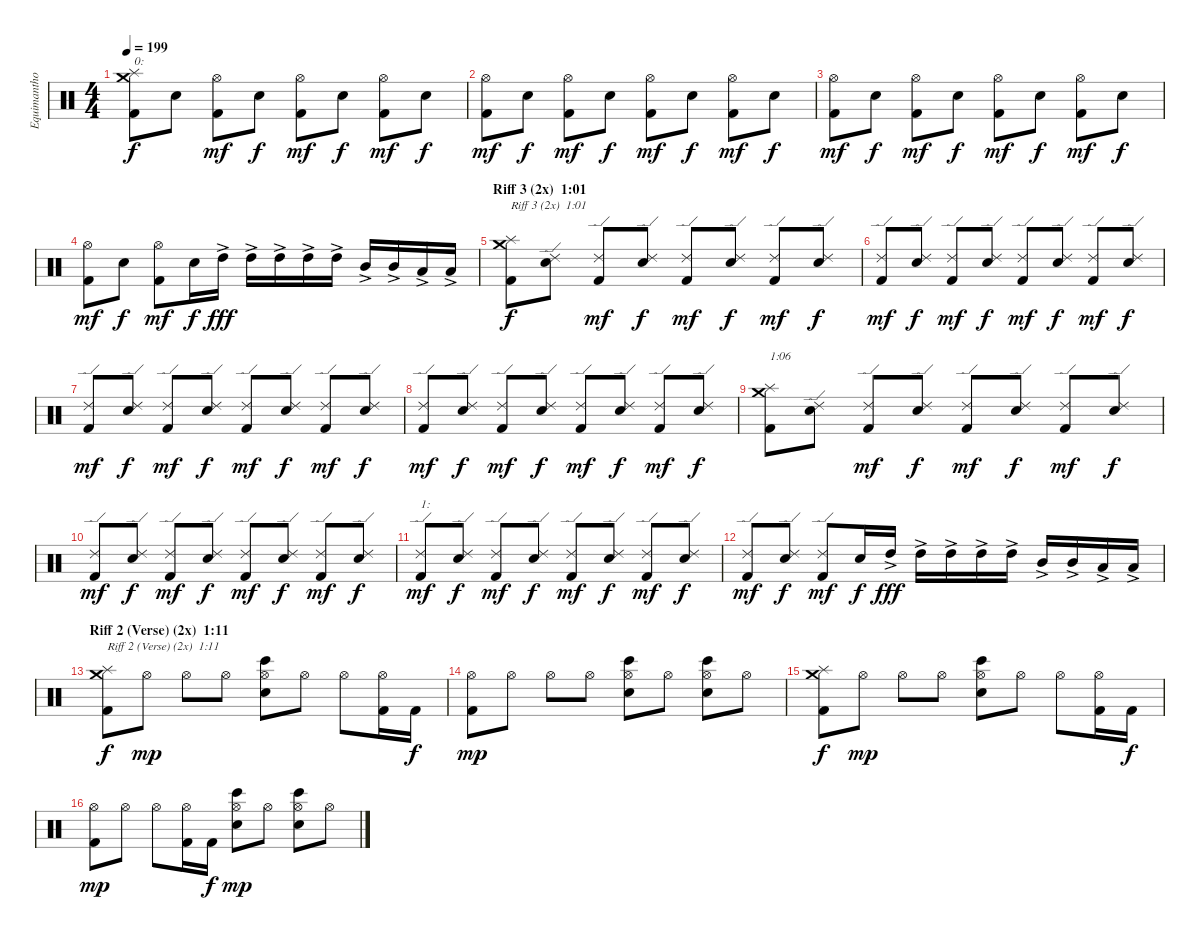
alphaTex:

\track ("Equimanthorn" "Equimantho") {instrument percussion}
\staff {score}
\articulation defaults
\ts (4 4)
\tempo 199
\clef neutral
\ks c
("Kick (hit) 2" "Splash (hit)" "Crash medium (hit)").8{txt "0:" dy f} "Electric Snare (hit)".8 ("Kick (hit) 2" "Hi-Hat (open)").8{dy mf} "Electric Snare (hit)".8{dy f} ("Kick (hit) 2" "Hi-Hat (open)").8{dy mf} "Electric Snare (hit)".8{dy f} ("Kick (hit) 2" "Hi-Hat (open)").8{dy mf} "Electric Snare (hit)".8{dy f} |
("Kick (hit) 2" "Hi-Hat (open)").8{dy mf} "Electric Snare (hit)".8{dy f} ("Kick (hit) 2" "Hi-Hat (open)").8{dy mf} "Electric Snare (hit)".8{dy f} ("Kick (hit) 2" "Hi-Hat (open)").8{dy mf} "Electric Snare (hit)".8{dy f} ("Kick (hit) 2" "Hi-Hat (open)").8{dy mf} "Electric Snare (hit)".8{dy f} |
("Kick (hit) 2" "Hi-Hat (open)").8{dy mf} "Electric Snare (hit)".8{dy f} ("Kick (hit) 2" "Hi-Hat (open)").8{dy mf} "Electric Snare (hit)".8{dy f} ("Kick (hit) 2" "Hi-Hat (open)").8{dy mf} "Electric Snare (hit)".8{dy f} ("Kick (hit) 2" "Hi-Hat (open)").8{dy mf} "Electric Snare (hit)".8{dy f} |
("Kick (hit) 2" "Hi-Hat (open)").8{dy mf} "Electric Snare (hit)".8{dy f} ("Kick (hit) 2" "Hi-Hat (open)").8{dy mf} "Electric Snare (hit)".16{dy f} "High Tom (hit)"{ac}.16{dy fff} "High Tom (hit)"{ac}.16 "High Tom (hit)"{ac}.16 "High Tom (hit)"{ac}.16 "High Tom (hit)"{ac}.16 "Mid Tom (hit)"{ac}.16 "Mid Tom (hit)"{ac}.16 "Low Tom (hit)"{ac}.16 "Low Tom (hit)"{ac}.16 |
\section ("" "Riff 3 (2x)  1:01")
("Kick (hit) 2" "Splash (hit)" "Crash medium (hit)").8{txt "Riff 3 (2x)  1:01" dy f} ("Electric Snare (hit)" "Ride (edge) 2").8 ("Kick (hit) 2" "Ride (edge) 2").8{dy mf} ("Electric Snare (hit)" "Ride (edge) 2").8{dy f} ("Kick (hit) 2" "Ride (edge) 2").8{dy mf} ("Electric Snare (hit)" "Ride (edge) 2").8{dy f} ("Kick (hit) 2" "Ride (edge) 2").8{dy mf} ("Electric Snare (hit)" "Ride (edge) 2").8{dy f} |
("Kick (hit) 2" "Ride (edge) 2").8{dy mf} ("Electric Snare (hit)" "Ride (edge) 2").8{dy f} ("Kick (hit) 2" "Ride (edge) 2").8{dy mf} ("Electric Snare (hit)" "Ride (edge) 2").8{dy f} ("Kick (hit) 2" "Ride (edge) 2").8{dy mf} ("Electric Snare (hit)" "Ride (edge) 2").8{dy f} ("Kick (hit) 2" "Ride (edge) 2").8{dy mf} ("Electric Snare (hit)" "Ride (edge) 2").8{dy f} |
("Kick (hit) 2" "Ride (edge) 2").8{dy mf} ("Electric Snare (hit)" "Ride (edge) 2").8{dy f} ("Kick (hit) 2" "Ride (edge) 2").8{dy mf} ("Electric Snare (hit)" "Ride (edge) 2").8{dy f} ("Kick (hit) 2" "Ride (edge) 2").8{dy mf} ("Electric Snare (hit)" "Ride (edge) 2").8{dy f} ("Kick (hit) 2" "Ride (edge) 2").8{dy mf} ("Electric Snare (hit)" "Ride (edge) 2").8{dy f} |
("Kick (hit) 2" "Ride (edge) 2").8{dy mf} ("Electric Snare (hit)" "Ride (edge) 2").8{dy f} ("Kick (hit) 2" "Ride (edge) 2").8{dy mf} ("Electric Snare (hit)" "Ride (edge) 2").8{dy f} ("Kick (hit) 2" "Ride (edge) 2").8{dy mf} ("Electric Snare (hit)" "Ride (edge) 2").8{dy f} ("Kick (hit) 2" "Ride (edge) 2").8{dy mf} ("Electric Snare (hit)" "Ride (edge) 2").8{dy f} |
("Kick (hit) 2" "Splash (hit)" "Crash medium (hit)").8{txt "1:06"} ("Electric Snare (hit)" "Ride (edge) 2").8 ("Kick (hit) 2" "Ride (edge) 2").8{dy mf} ("Electric Snare (hit)" "Ride (edge) 2").8{dy f} ("Kick (hit) 2" "Ride (edge) 2").8{dy mf} ("Electric Snare (hit)" "Ride (edge) 2").8{dy f} ("Kick (hit) 2" "Ride (edge) 2").8{dy mf} ("Electric Snare (hit)" "Ride (edge) 2").8{dy f} |
("Kick (hit) 2" "Ride (edge) 2").8{dy mf} ("Electric Snare (hit)" "Ride (edge) 2").8{dy f} ("Kick (hit) 2" "Ride (edge) 2").8{dy mf} ("Electric Snare (hit)" "Ride (edge) 2").8{dy f} ("Kick (hit) 2" "Ride (edge) 2").8{dy mf} ("Electric Snare (hit)" "Ride (edge) 2").8{dy f} ("Kick (hit) 2" "Ride (edge) 2").8{dy mf} ("Electric Snare (hit)" "Ride (edge) 2").8{dy f} |
("Kick (hit) 2" "Ride (edge) 2").8{txt "1:" dy mf} ("Electric Snare (hit)" "Ride (edge) 2").8{dy f} ("Kick (hit) 2" "Ride (edge) 2").8{dy mf} ("Electric Snare (hit)" "Ride (edge) 2").8{dy f} ("Kick (hit) 2" "Ride (edge) 2").8{dy mf} ("Electric Snare (hit)" "Ride (edge) 2").8{dy f} ("Kick (hit) 2" "Ride (edge) 2").8{dy mf} ("Electric Snare (hit)" "Ride (edge) 2").8{dy f} |
("Kick (hit) 2" "Ride (edge) 2").8{dy mf} ("Electric Snare (hit)" "Ride (edge) 2").8{dy f} ("Kick (hit) 2" "Ride (edge) 2").8{dy mf} "Electric Snare (hit)".16{dy f} "High Tom (hit)"{ac}.16{dy fff} "High Tom (hit)"{ac}.16 "High Tom (hit)"{ac}.16 "High Tom (hit)"{ac}.16 "High Tom (hit)"{ac}.16 "Mid Tom (hit)"{ac}.16 "Mid Tom (hit)"{ac}.16 "Low Tom (hit)"{ac}.16 "Low Tom (hit)"{ac}.16 |
\section ("" "Riff 2 (Verse) (2x)  1:11")
("Kick (hit) 2" "Splash (hit)" "Crash medium (hit)").8{txt "Riff 2 (Verse) (2x)  1:11" dy f} "Hi-Hat (open)".8{dy mp} "Hi-Hat (open)".8 "Hi-Hat (open)".8 ("Bongo High (hit)" "Electric Snare (hit)" "Hi-Hat (open)").8 "Hi-Hat (open)".8 "Hi-Hat (open)".8 ("Kick (hit) 2" "Hi-Hat (open)").16 "Kick (hit) 2".16{dy f} |
("Kick (hit) 2" "Hi-Hat (open)").8{dy mp} "Hi-Hat (open)".8 "Hi-Hat (open)".8 "Hi-Hat (open)".8 ("Bongo High (hit)" "Electric Snare (hit)" "Hi-Hat (open)").8 "Hi-Hat (open)".8 ("Bongo High (hit)" "Electric Snare (hit)" "Hi-Hat (open)").8 "Hi-Hat (open)".8 |
("Kick (hit) 2" "Splash (hit)" "Crash medium (hit)").8{dy f} "Hi-Hat (open)".8{dy mp} "Hi-Hat (open)".8 "Hi-Hat (open)".8 ("Bongo High (hit)" "Electric Snare (hit)" "Hi-Hat (open)").8 "Hi-Hat (open)".8 "Hi-Hat (open)".8 ("Kick (hit) 2" "Hi-Hat (open)").16 "Kick (hit) 2".16{dy f} |
("Kick (hit) 2" "Hi-Hat (open)").8{dy mp} "Hi-Hat (open)".8 "Hi-Hat (open)".8 ("Kick (hit) 2" "Hi-Hat (open)").16 "Kick (hit) 2".16{dy f} ("Bongo High (hit)" "Electric Snare (hit)" "Hi-Hat (open)").8{dy mp} "Hi-Hat (open)".8 ("Bongo High (hit)" "Electric Snare (hit)" "Hi-Hat (open)").8 "Hi-Hat (open)".8
